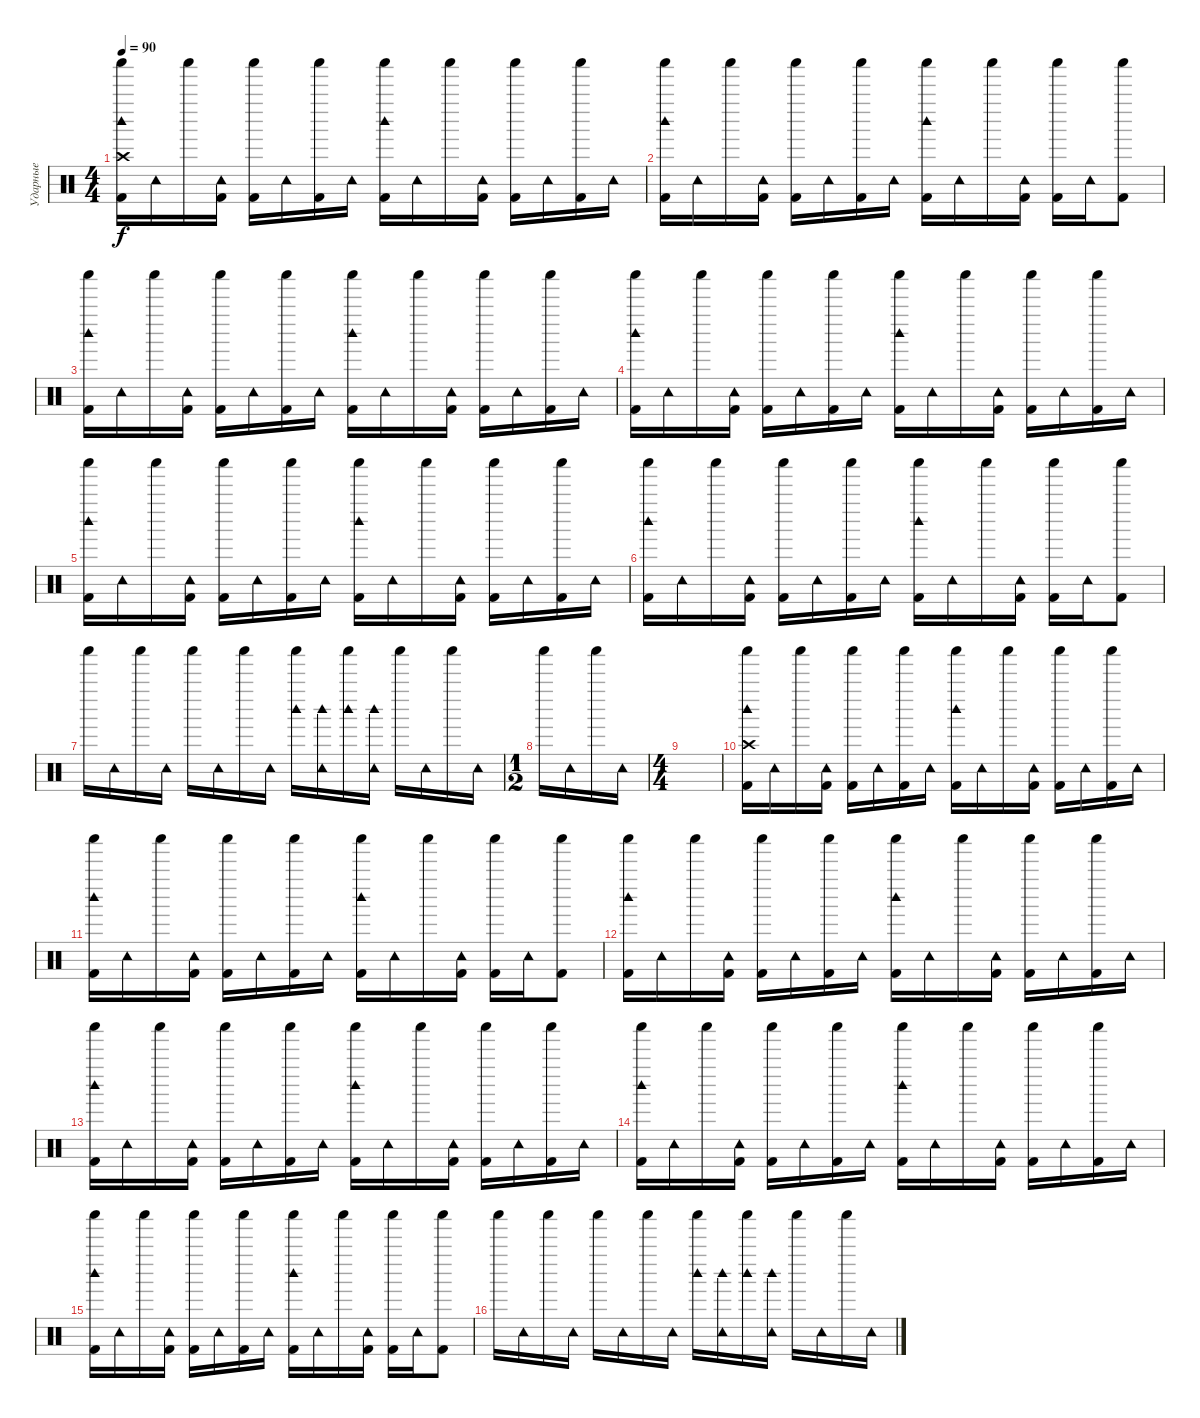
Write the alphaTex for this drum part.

\track ("Ударные" "Ударные") {instrument percussion}
\staff {score}
\articulation defaults
\ts (4 4)
\tempo 90
\clef neutral
\ks c
("Shaker (hit)" "Kick (hit) 2" "Woodblock high (hit)" "Crash high (hit)").16{dy f} "Tambourine (hit)".16 "Shaker (hit)".16 ("Tambourine (hit)" "Kick (hit) 2").16 ("Shaker (hit)" "Kick (hit) 2").16 "Tambourine (hit)".16 ("Shaker (hit)" "Kick (hit) 2").16 "Tambourine (hit)".16 ("Shaker (hit)" "Kick (hit) 2" "Woodblock high (hit)").16 "Tambourine (hit)".16 "Shaker (hit)".16 ("Tambourine (hit)" "Kick (hit) 2").16 ("Shaker (hit)" "Kick (hit) 2").16 "Tambourine (hit)".16 ("Shaker (hit)" "Kick (hit) 2").16 "Tambourine (hit)".16 |
("Shaker (hit)" "Kick (hit) 2" "Woodblock high (hit)").16 "Tambourine (hit)".16 "Shaker (hit)".16 ("Tambourine (hit)" "Kick (hit) 2").16 ("Shaker (hit)" "Kick (hit) 2").16 "Tambourine (hit)".16 ("Shaker (hit)" "Kick (hit) 2").16 "Tambourine (hit)".16 ("Shaker (hit)" "Kick (hit) 2" "Woodblock high (hit)").16 "Tambourine (hit)".16 "Shaker (hit)".16 ("Tambourine (hit)" "Kick (hit) 2").16 ("Shaker (hit)" "Kick (hit) 2").16 "Tambourine (hit)".16 ("Shaker (hit)" "Kick (hit) 2").8 |
("Shaker (hit)" "Kick (hit) 2" "Woodblock high (hit)").16 "Tambourine (hit)".16 "Shaker (hit)".16 ("Tambourine (hit)" "Kick (hit) 2").16 ("Shaker (hit)" "Kick (hit) 2").16 "Tambourine (hit)".16 ("Shaker (hit)" "Kick (hit) 2").16 "Tambourine (hit)".16 ("Shaker (hit)" "Kick (hit) 2" "Woodblock high (hit)").16 "Tambourine (hit)".16 "Shaker (hit)".16 ("Tambourine (hit)" "Kick (hit) 2").16 ("Shaker (hit)" "Kick (hit) 2").16 "Tambourine (hit)".16 ("Shaker (hit)" "Kick (hit) 2").16 "Tambourine (hit)".16 |
("Shaker (hit)" "Kick (hit) 2" "Woodblock high (hit)").16 "Tambourine (hit)".16 "Shaker (hit)".16 ("Tambourine (hit)" "Kick (hit) 2").16 ("Shaker (hit)" "Kick (hit) 2").16 "Tambourine (hit)".16 ("Shaker (hit)" "Kick (hit) 2").16 "Tambourine (hit)".16 ("Shaker (hit)" "Kick (hit) 2" "Woodblock high (hit)").16 "Tambourine (hit)".16 "Shaker (hit)".16 ("Tambourine (hit)" "Kick (hit) 2").16 ("Shaker (hit)" "Kick (hit) 2").16 "Tambourine (hit)".16 ("Shaker (hit)" "Kick (hit) 2").16 "Tambourine (hit)".16 |
("Shaker (hit)" "Kick (hit) 2" "Woodblock high (hit)").16 "Tambourine (hit)".16 "Shaker (hit)".16 ("Tambourine (hit)" "Kick (hit) 2").16 ("Shaker (hit)" "Kick (hit) 2").16 "Tambourine (hit)".16 ("Shaker (hit)" "Kick (hit) 2").16 "Tambourine (hit)".16 ("Shaker (hit)" "Kick (hit) 2" "Woodblock high (hit)").16 "Tambourine (hit)".16 "Shaker (hit)".16 ("Tambourine (hit)" "Kick (hit) 2").16 ("Shaker (hit)" "Kick (hit) 2").16 "Tambourine (hit)".16 ("Shaker (hit)" "Kick (hit) 2").16 "Tambourine (hit)".16 |
("Shaker (hit)" "Kick (hit) 2" "Woodblock high (hit)").16 "Tambourine (hit)".16 "Shaker (hit)".16 ("Tambourine (hit)" "Kick (hit) 2").16 ("Shaker (hit)" "Kick (hit) 2").16 "Tambourine (hit)".16 ("Shaker (hit)" "Kick (hit) 2").16 "Tambourine (hit)".16 ("Shaker (hit)" "Kick (hit) 2" "Woodblock high (hit)").16 "Tambourine (hit)".16 "Shaker (hit)".16 ("Tambourine (hit)" "Kick (hit) 2").16 ("Shaker (hit)" "Kick (hit) 2").16 "Tambourine (hit)".16 ("Shaker (hit)" "Kick (hit) 2").8 |
"Shaker (hit)".16 "Tambourine (hit)".16 "Shaker (hit)".16 "Tambourine (hit)".16 "Shaker (hit)".16 "Tambourine (hit)".16 "Shaker (hit)".16 "Tambourine (hit)".16 ("Shaker (hit)" "Woodblock high (hit)").16 ("Tambourine (hit)" "Woodblock high (hit)").16 ("Shaker (hit)" "Woodblock high (hit)").16 ("Tambourine (hit)" "Woodblock high (hit)").16 "Shaker (hit)".16 "Tambourine (hit)".16 "Shaker (hit)".16 "Tambourine (hit)".16 |
\ts (1 2)
"Shaker (hit)".16 "Tambourine (hit)".16 "Shaker (hit)".16 "Tambourine (hit)".16 |
\ts (4 4)
|
("Shaker (hit)" "Kick (hit) 2" "Woodblock high (hit)" "Crash high (hit)").16 "Tambourine (hit)".16 "Shaker (hit)".16 ("Tambourine (hit)" "Kick (hit) 2").16 ("Shaker (hit)" "Kick (hit) 2").16 "Tambourine (hit)".16 ("Shaker (hit)" "Kick (hit) 2").16 "Tambourine (hit)".16 ("Shaker (hit)" "Kick (hit) 2" "Woodblock high (hit)").16 "Tambourine (hit)".16 "Shaker (hit)".16 ("Tambourine (hit)" "Kick (hit) 2").16 ("Shaker (hit)" "Kick (hit) 2").16 "Tambourine (hit)".16 ("Shaker (hit)" "Kick (hit) 2").16 "Tambourine (hit)".16 |
("Shaker (hit)" "Kick (hit) 2" "Woodblock high (hit)").16 "Tambourine (hit)".16 "Shaker (hit)".16 ("Tambourine (hit)" "Kick (hit) 2").16 ("Shaker (hit)" "Kick (hit) 2").16 "Tambourine (hit)".16 ("Shaker (hit)" "Kick (hit) 2").16 "Tambourine (hit)".16 ("Shaker (hit)" "Kick (hit) 2" "Woodblock high (hit)").16 "Tambourine (hit)".16 "Shaker (hit)".16 ("Tambourine (hit)" "Kick (hit) 2").16 ("Shaker (hit)" "Kick (hit) 2").16 "Tambourine (hit)".16 ("Shaker (hit)" "Kick (hit) 2").8 |
("Shaker (hit)" "Kick (hit) 2" "Woodblock high (hit)").16 "Tambourine (hit)".16 "Shaker (hit)".16 ("Tambourine (hit)" "Kick (hit) 2").16 ("Shaker (hit)" "Kick (hit) 2").16 "Tambourine (hit)".16 ("Shaker (hit)" "Kick (hit) 2").16 "Tambourine (hit)".16 ("Shaker (hit)" "Kick (hit) 2" "Woodblock high (hit)").16 "Tambourine (hit)".16 "Shaker (hit)".16 ("Tambourine (hit)" "Kick (hit) 2").16 ("Shaker (hit)" "Kick (hit) 2").16 "Tambourine (hit)".16 ("Shaker (hit)" "Kick (hit) 2").16 "Tambourine (hit)".16 |
("Shaker (hit)" "Kick (hit) 2" "Woodblock high (hit)").16 "Tambourine (hit)".16 "Shaker (hit)".16 ("Tambourine (hit)" "Kick (hit) 2").16 ("Shaker (hit)" "Kick (hit) 2").16 "Tambourine (hit)".16 ("Shaker (hit)" "Kick (hit) 2").16 "Tambourine (hit)".16 ("Shaker (hit)" "Kick (hit) 2" "Woodblock high (hit)").16 "Tambourine (hit)".16 "Shaker (hit)".16 ("Tambourine (hit)" "Kick (hit) 2").16 ("Shaker (hit)" "Kick (hit) 2").16 "Tambourine (hit)".16 ("Shaker (hit)" "Kick (hit) 2").16 "Tambourine (hit)".16 |
("Shaker (hit)" "Kick (hit) 2" "Woodblock high (hit)").16 "Tambourine (hit)".16 "Shaker (hit)".16 ("Tambourine (hit)" "Kick (hit) 2").16 ("Shaker (hit)" "Kick (hit) 2").16 "Tambourine (hit)".16 ("Shaker (hit)" "Kick (hit) 2").16 "Tambourine (hit)".16 ("Shaker (hit)" "Kick (hit) 2" "Woodblock high (hit)").16 "Tambourine (hit)".16 "Shaker (hit)".16 ("Tambourine (hit)" "Kick (hit) 2").16 ("Shaker (hit)" "Kick (hit) 2").16 "Tambourine (hit)".16 ("Shaker (hit)" "Kick (hit) 2").16 "Tambourine (hit)".16 |
("Shaker (hit)" "Kick (hit) 2" "Woodblock high (hit)").16 "Tambourine (hit)".16 "Shaker (hit)".16 ("Tambourine (hit)" "Kick (hit) 2").16 ("Shaker (hit)" "Kick (hit) 2").16 "Tambourine (hit)".16 ("Shaker (hit)" "Kick (hit) 2").16 "Tambourine (hit)".16 ("Shaker (hit)" "Kick (hit) 2" "Woodblock high (hit)").16 "Tambourine (hit)".16 "Shaker (hit)".16 ("Tambourine (hit)" "Kick (hit) 2").16 ("Shaker (hit)" "Kick (hit) 2").16 "Tambourine (hit)".16 ("Shaker (hit)" "Kick (hit) 2").8 |
"Shaker (hit)".16 "Tambourine (hit)".16 "Shaker (hit)".16 "Tambourine (hit)".16 "Shaker (hit)".16 "Tambourine (hit)".16 "Shaker (hit)".16 "Tambourine (hit)".16 ("Shaker (hit)" "Woodblock high (hit)").16 ("Tambourine (hit)" "Woodblock high (hit)").16 ("Shaker (hit)" "Woodblock high (hit)").16 ("Tambourine (hit)" "Woodblock high (hit)").16 "Shaker (hit)".16 "Tambourine (hit)".16 "Shaker (hit)".16 "Tambourine (hit)".16
